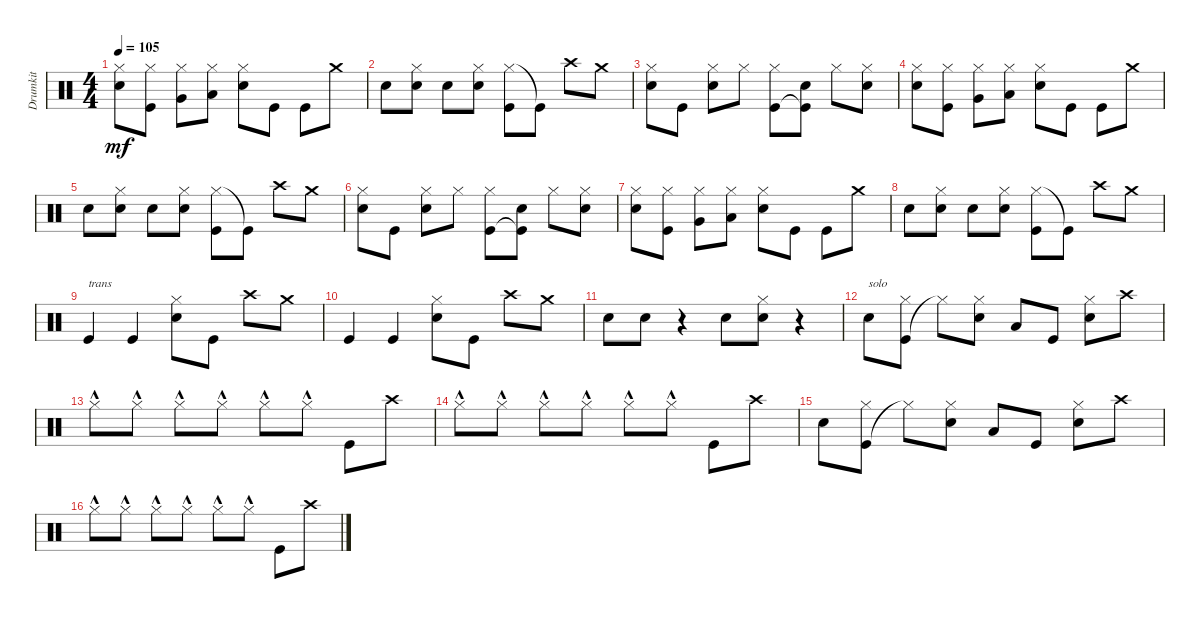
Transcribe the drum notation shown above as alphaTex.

\track ("Drumkit" "Drumkit") {instrument percussion}
\staff {score}
\articulation defaults
\ts (4 4)
\tempo 105
\clef neutral
\ks c
("Hi-Hat (closed)" "Snare (hit) 2").8{dy mf} ("Kick (hit)" "Hi-Hat (closed)").8 ("Very Low Tom (hit)" "Hi-Hat (closed)").8 ("Low Tom (hit)" "Hi-Hat (closed)").8 ("Snare (hit) 2" "Hi-Hat (closed)").8 "Kick (hit)".8 "Kick (hit)".8 "Crash medium (hit)".8 |
"Snare (hit) 2".8 ("Snare (hit) 2" "Hi-Hat (closed)").8 "Snare (hit) 2".8 ("Snare (hit) 2" "Hi-Hat (closed)").8 ("Hi-Hat (closed)" "Kick (hit)").8 "Kick (hit)"{t}.8 "Crash high (hit)".8 "Crash medium (hit)".8 |
("Snare (hit) 2" "Hi-Hat (closed)").8 "Kick (hit)".8 ("Hi-Hat (closed)" "Snare (hit) 2").8 "Hi-Hat (closed)".8 ("Kick (hit)" "Hi-Hat (closed)").8 ("Kick (hit)"{t} "Snare (hit) 2").8 "Hi-Hat (closed)".8 ("Hi-Hat (closed)" "Snare (hit) 2").8 |
("Hi-Hat (closed)" "Snare (hit) 2").8 ("Kick (hit)" "Hi-Hat (closed)").8 ("Very Low Tom (hit)" "Hi-Hat (closed)").8 ("Low Tom (hit)" "Hi-Hat (closed)").8 ("Snare (hit) 2" "Hi-Hat (closed)").8 "Kick (hit)".8 "Kick (hit)".8 "Crash medium (hit)".8 |
"Snare (hit) 2".8 ("Snare (hit) 2" "Hi-Hat (closed)").8 "Snare (hit) 2".8 ("Snare (hit) 2" "Hi-Hat (closed)").8 ("Hi-Hat (closed)" "Kick (hit)").8 "Kick (hit)"{t}.8 "Crash high (hit)".8 "Crash medium (hit)".8 |
("Snare (hit) 2" "Hi-Hat (closed)").8 "Kick (hit)".8 ("Hi-Hat (closed)" "Snare (hit) 2").8 "Hi-Hat (closed)".8 ("Kick (hit)" "Hi-Hat (closed)").8 ("Kick (hit)"{t} "Snare (hit) 2").8 "Hi-Hat (closed)".8 ("Hi-Hat (closed)" "Snare (hit) 2").8 |
("Hi-Hat (closed)" "Snare (hit) 2").8 ("Kick (hit)" "Hi-Hat (closed)").8 ("Very Low Tom (hit)" "Hi-Hat (closed)").8 ("Low Tom (hit)" "Hi-Hat (closed)").8 ("Snare (hit) 2" "Hi-Hat (closed)").8 "Kick (hit)".8 "Kick (hit)".8 "Crash medium (hit)".8 |
"Snare (hit) 2".8 ("Snare (hit) 2" "Hi-Hat (closed)").8 "Snare (hit) 2".8 ("Snare (hit) 2" "Hi-Hat (closed)").8 ("Hi-Hat (closed)" "Kick (hit)").8 "Kick (hit)"{t}.8 "Crash high (hit)".8 "Crash medium (hit)".8 |
"Kick (hit)".4{txt "trans"} "Kick (hit)".4 ("Snare (hit) 2" "Hi-Hat (closed)").8 "Kick (hit)".8 "Crash high (hit)".8 "Crash medium (hit)".8 |
"Kick (hit)".4 "Kick (hit)".4 ("Snare (hit) 2" "Hi-Hat (closed)").8 "Kick (hit)".8 "Crash high (hit)".8 "Crash medium (hit)".8 |
"Snare (hit) 2".8 "Snare (hit) 2".8 r.4 "Snare (hit) 2".8 ("Snare (hit) 2" "Hi-Hat (closed)").8 r.4 |
"Snare (hit) 2".8{txt "solo"} ("Kick (hit)" "Hi-Hat (closed)").8 "Hi-Hat (closed)"{t}.8 ("Hi-Hat (closed)" "Snare (hit) 2").8 "Low Tom (hit)".8 "Kick (hit)".8 ("Snare (hit) 2" "Hi-Hat (closed)").8 "Crash high (hit)".8 |
"Hi-Hat (closed)"{hac}.8 "Hi-Hat (closed)"{hac}.8 "Hi-Hat (closed)"{hac}.8 "Hi-Hat (closed)"{hac}.8 "Hi-Hat (closed)"{hac}.8 "Hi-Hat (closed)"{hac}.8 "Kick (hit)".8 "Crash high (hit)".8 |
"Hi-Hat (closed)"{hac}.8 "Hi-Hat (closed)"{hac}.8 "Hi-Hat (closed)"{hac}.8 "Hi-Hat (closed)"{hac}.8 "Hi-Hat (closed)"{hac}.8 "Hi-Hat (closed)"{hac}.8 "Kick (hit)".8 "Crash high (hit)".8 |
"Snare (hit) 2".8 ("Kick (hit)" "Hi-Hat (closed)").8 "Hi-Hat (closed)"{t}.8 ("Hi-Hat (closed)" "Snare (hit) 2").8 "Low Tom (hit)".8 "Kick (hit)".8 ("Snare (hit) 2" "Hi-Hat (closed)").8 "Crash high (hit)".8 |
"Hi-Hat (closed)"{hac}.8 "Hi-Hat (closed)"{hac}.8 "Hi-Hat (closed)"{hac}.8 "Hi-Hat (closed)"{hac}.8 "Hi-Hat (closed)"{hac}.8 "Hi-Hat (closed)"{hac}.8 "Kick (hit)".8 "Crash high (hit)".8
